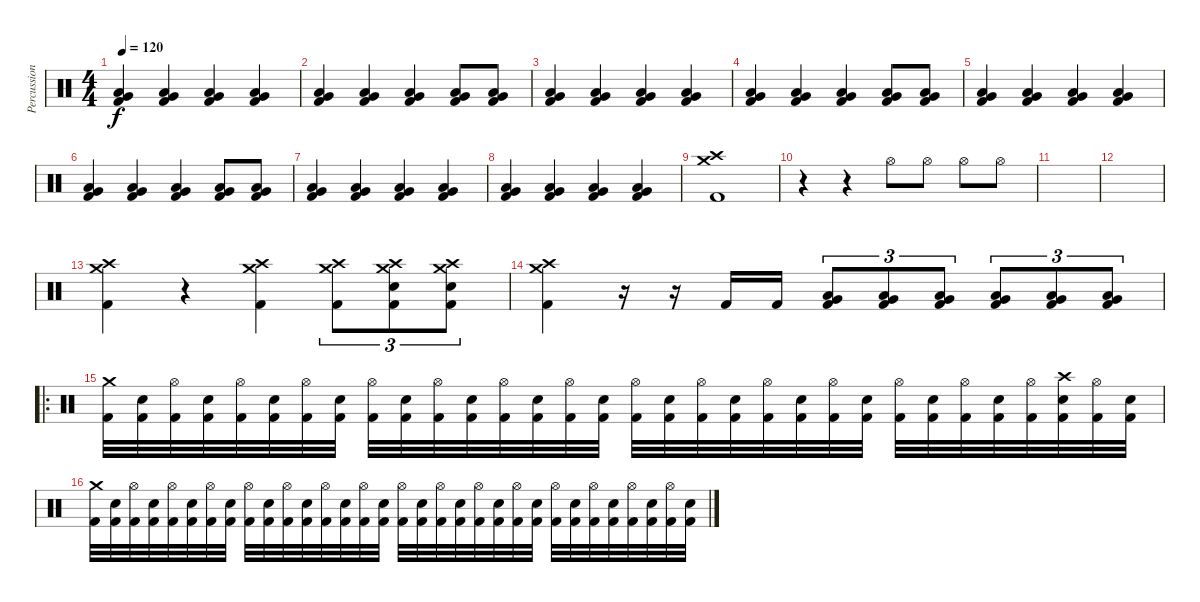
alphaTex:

\track ("Percussion" "Percussion") {instrument percussion}
\staff {score}
\articulation defaults
\ts (4 4)
\tempo 120
\clef neutral
\ks c
("Very Low Tom (hit)" "Low Floor Tom (hit)" "Kick (hit) 2").4{dy f} ("Very Low Tom (hit)" "Low Floor Tom (hit)" "Kick (hit) 2").4 ("Very Low Tom (hit)" "Low Floor Tom (hit)" "Kick (hit) 2").4 ("Very Low Tom (hit)" "Low Floor Tom (hit)" "Kick (hit) 2").4 |
("Very Low Tom (hit)" "Low Floor Tom (hit)" "Kick (hit) 2").4 ("Very Low Tom (hit)" "Low Floor Tom (hit)" "Kick (hit) 2").4 ("Very Low Tom (hit)" "Low Floor Tom (hit)" "Kick (hit) 2").4 ("Very Low Tom (hit)" "Low Floor Tom (hit)" "Kick (hit) 2").8 ("Very Low Tom (hit)" "Low Floor Tom (hit)" "Kick (hit) 2").8 |
("Very Low Tom (hit)" "Low Floor Tom (hit)" "Kick (hit) 2").4 ("Very Low Tom (hit)" "Low Floor Tom (hit)" "Kick (hit) 2").4 ("Very Low Tom (hit)" "Low Floor Tom (hit)" "Kick (hit) 2").4 ("Very Low Tom (hit)" "Low Floor Tom (hit)" "Kick (hit) 2").4 |
("Very Low Tom (hit)" "Low Floor Tom (hit)" "Kick (hit) 2").4 ("Very Low Tom (hit)" "Low Floor Tom (hit)" "Kick (hit) 2").4 ("Very Low Tom (hit)" "Low Floor Tom (hit)" "Kick (hit) 2").4 ("Very Low Tom (hit)" "Low Floor Tom (hit)" "Kick (hit) 2").8 ("Very Low Tom (hit)" "Low Floor Tom (hit)" "Kick (hit) 2").8 |
("Very Low Tom (hit)" "Low Floor Tom (hit)" "Kick (hit) 2").4 ("Very Low Tom (hit)" "Low Floor Tom (hit)" "Kick (hit) 2").4 ("Very Low Tom (hit)" "Low Floor Tom (hit)" "Kick (hit) 2").4 ("Very Low Tom (hit)" "Low Floor Tom (hit)" "Kick (hit) 2").4 |
("Very Low Tom (hit)" "Low Floor Tom (hit)" "Kick (hit) 2").4 ("Very Low Tom (hit)" "Low Floor Tom (hit)" "Kick (hit) 2").4 ("Very Low Tom (hit)" "Low Floor Tom (hit)" "Kick (hit) 2").4 ("Very Low Tom (hit)" "Low Floor Tom (hit)" "Kick (hit) 2").8 ("Very Low Tom (hit)" "Low Floor Tom (hit)" "Kick (hit) 2").8 |
("Very Low Tom (hit)" "Low Floor Tom (hit)" "Kick (hit) 2").4 ("Very Low Tom (hit)" "Low Floor Tom (hit)" "Kick (hit) 2").4 ("Very Low Tom (hit)" "Low Floor Tom (hit)" "Kick (hit) 2").4 ("Very Low Tom (hit)" "Low Floor Tom (hit)" "Kick (hit) 2").4 |
("Very Low Tom (hit)" "Low Floor Tom (hit)" "Kick (hit) 2").4 ("Very Low Tom (hit)" "Low Floor Tom (hit)" "Kick (hit) 2").4 ("Very Low Tom (hit)" "Low Floor Tom (hit)" "Kick (hit) 2").4 ("Very Low Tom (hit)" "Low Floor Tom (hit)" "Kick (hit) 2").4 |
("Crash medium (hit)" "Crash high (hit)" "Kick (hit) 2").1 |
r.4 r.4 "Hi-Hat (open)".8 "Hi-Hat (open)".8 "Hi-Hat (open)".8 "Hi-Hat (open)".8 |
|
|
("Crash medium (hit)" "Crash high (hit)" "Kick (hit) 2").4 r.4 ("Crash medium (hit)" "Crash high (hit)" "Kick (hit) 2").4 ("Crash medium (hit)" "Crash high (hit)" "Kick (hit) 2").8{tu (3 2)} ("Crash medium (hit)" "Crash high (hit)" "Snare (hit) 2" "Kick (hit) 2").8{tu (3 2)} ("Crash medium (hit)" "Crash high (hit)" "Snare (hit) 2" "Kick (hit) 2").8{tu (3 2)} |
("Crash medium (hit)" "Crash high (hit)" "Kick (hit) 2").4 r.16 r.16 "Kick (hit) 2".16 "Kick (hit) 2".16 ("Low Floor Tom (hit)" "Very Low Tom (hit)" "Kick (hit) 2").8{tu (3 2)} ("Low Floor Tom (hit)" "Very Low Tom (hit)" "Kick (hit) 2").8{tu (3 2)} ("Low Floor Tom (hit)" "Very Low Tom (hit)" "Kick (hit) 2").8{tu (3 2)} ("Very Low Tom (hit)" "Low Tom (hit)" "Kick (hit) 2").8{tu (3 2)} ("Very Low Tom (hit)" "Low Tom (hit)" "Kick (hit) 2").8{tu (3 2)} ("Very Low Tom (hit)" "Low Tom (hit)" "Kick (hit) 2").8{tu (3 2)} |
\ro
("Crash medium (hit)" "Kick (hit) 2").32 ("Snare (hit) 2" "Kick (hit) 2").32 ("Hi-Hat (open)" "Kick (hit) 2").32 ("Snare (hit) 2" "Kick (hit) 2").32 ("Hi-Hat (open)" "Kick (hit) 2").32 ("Snare (hit) 2" "Kick (hit) 2").32 ("Hi-Hat (open)" "Kick (hit) 2").32 ("Snare (hit) 2" "Kick (hit) 2").32 ("Hi-Hat (open)" "Kick (hit) 2").32 ("Snare (hit) 2" "Kick (hit) 2").32 ("Hi-Hat (open)" "Kick (hit) 2").32 ("Snare (hit) 2" "Kick (hit) 2").32 ("Hi-Hat (open)" "Kick (hit) 2").32 ("Snare (hit) 2" "Kick (hit) 2").32 ("Hi-Hat (open)" "Kick (hit) 2").32 ("Snare (hit) 2" "Kick (hit) 2").32 ("Hi-Hat (open)" "Kick (hit) 2").32 ("Snare (hit) 2" "Kick (hit) 2").32 ("Hi-Hat (open)" "Kick (hit) 2").32 ("Snare (hit) 2" "Kick (hit) 2").32 ("Hi-Hat (open)" "Kick (hit) 2").32 ("Snare (hit) 2" "Kick (hit) 2").32 ("Hi-Hat (open)" "Kick (hit) 2").32 ("Snare (hit) 2" "Kick (hit) 2").32 ("Hi-Hat (open)" "Kick (hit) 2").32 ("Snare (hit) 2" "Kick (hit) 2").32 ("Hi-Hat (open)" "Kick (hit) 2").32 ("Snare (hit) 2" "Kick (hit) 2").32 ("Hi-Hat (open)" "Kick (hit) 2").32 ("Crash high (hit)" "Snare (hit) 2" "Kick (hit) 2").32 ("Hi-Hat (open)" "Kick (hit) 2").32 ("Snare (hit) 2" "Kick (hit) 2").32 |
("Crash medium (hit)" "Kick (hit) 2").32 ("Snare (hit) 2" "Kick (hit) 2").32 ("Hi-Hat (open)" "Kick (hit) 2").32 ("Snare (hit) 2" "Kick (hit) 2").32 ("Hi-Hat (open)" "Kick (hit) 2").32 ("Snare (hit) 2" "Kick (hit) 2").32 ("Hi-Hat (open)" "Kick (hit) 2").32 ("Snare (hit) 2" "Kick (hit) 2").32 ("Hi-Hat (open)" "Kick (hit) 2").32 ("Snare (hit) 2" "Kick (hit) 2").32 ("Hi-Hat (open)" "Kick (hit) 2").32 ("Snare (hit) 2" "Kick (hit) 2").32 ("Hi-Hat (open)" "Kick (hit) 2").32 ("Snare (hit) 2" "Kick (hit) 2").32 ("Hi-Hat (open)" "Kick (hit) 2").32 ("Snare (hit) 2" "Kick (hit) 2").32 ("Hi-Hat (open)" "Kick (hit) 2").32 ("Snare (hit) 2" "Kick (hit) 2").32 ("Hi-Hat (open)" "Kick (hit) 2").32 ("Snare (hit) 2" "Kick (hit) 2").32 ("Hi-Hat (open)" "Kick (hit) 2").32 ("Snare (hit) 2" "Kick (hit) 2").32 ("Hi-Hat (open)" "Kick (hit) 2").32 ("Snare (hit) 2" "Kick (hit) 2").32 ("Hi-Hat (open)" "Kick (hit) 2").32 ("Snare (hit) 2" "Kick (hit) 2").32 ("Hi-Hat (open)" "Kick (hit) 2").32 ("Snare (hit) 2" "Kick (hit) 2").32 ("Hi-Hat (open)" "Kick (hit) 2").32 ("Snare (hit) 2" "Kick (hit) 2").32 ("Hi-Hat (open)" "Kick (hit) 2").32 ("Snare (hit) 2" "Kick (hit) 2").32
